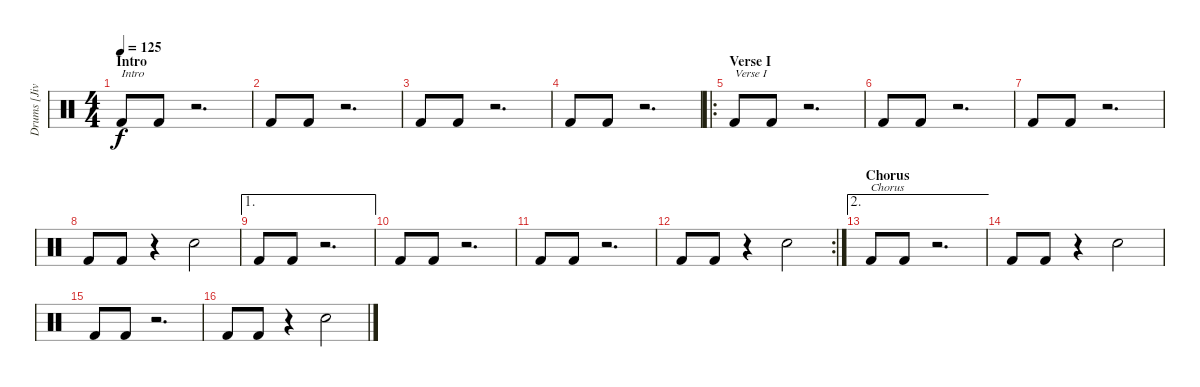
\track ("Drums [Jivarp]" "Drums [Jiv") {instrument percussion}
\staff {score}
\articulation defaults
\ts (4 4)
\section ("" "Intro")
\tempo 125
\clef neutral
\ks c "Kick (hit) 2".8{txt "Intro" dy f} "Kick (hit) 2".8
r.2{d} |
"Kick (hit) 2".8 "Kick (hit) 2".8 r.2{d} |
"Kick (hit) 2".8 "Kick (hit) 2".8 r.2{d} |
"Kick (hit) 2".8 "Kick (hit) 2".8 r.2{d} |
\ro
\section ("" "Verse I")
"Kick (hit) 2".8{txt "Verse I"} "Kick (hit) 2".8 r.2{d} |
"Kick (hit) 2".8 "Kick (hit) 2".8 r.2{d} |
"Kick (hit) 2".8 "Kick (hit) 2".8 r.2{d} |
"Kick (hit) 2".8 "Kick (hit) 2".8 r.4 "Electric Snare (hit)".2 |
\ae 1 "Kick (hit) 2".8 "Kick (hit) 2".8
r.2{d} |
"Kick (hit) 2".8 "Kick (hit) 2".8 r.2{d} |
"Kick (hit) 2".8 "Kick (hit) 2".8 r.2{d} |
\rc 2 "Kick (hit) 2".8 "Kick (hit) 2".8
r.4 "Electric Snare (hit)".2 |
\ae 2
\section ("" "Chorus")
"Kick (hit) 2".8{txt "Chorus"} "Kick (hit) 2".8 r.2{d} |
"Kick (hit) 2".8 "Kick (hit) 2".8 r.4 "Electric Snare (hit)".2 |
"Kick (hit) 2".8 "Kick (hit) 2".8 r.2{d} |
"Kick (hit) 2".8 "Kick (hit) 2".8 r.4 "Electric Snare (hit)".2
